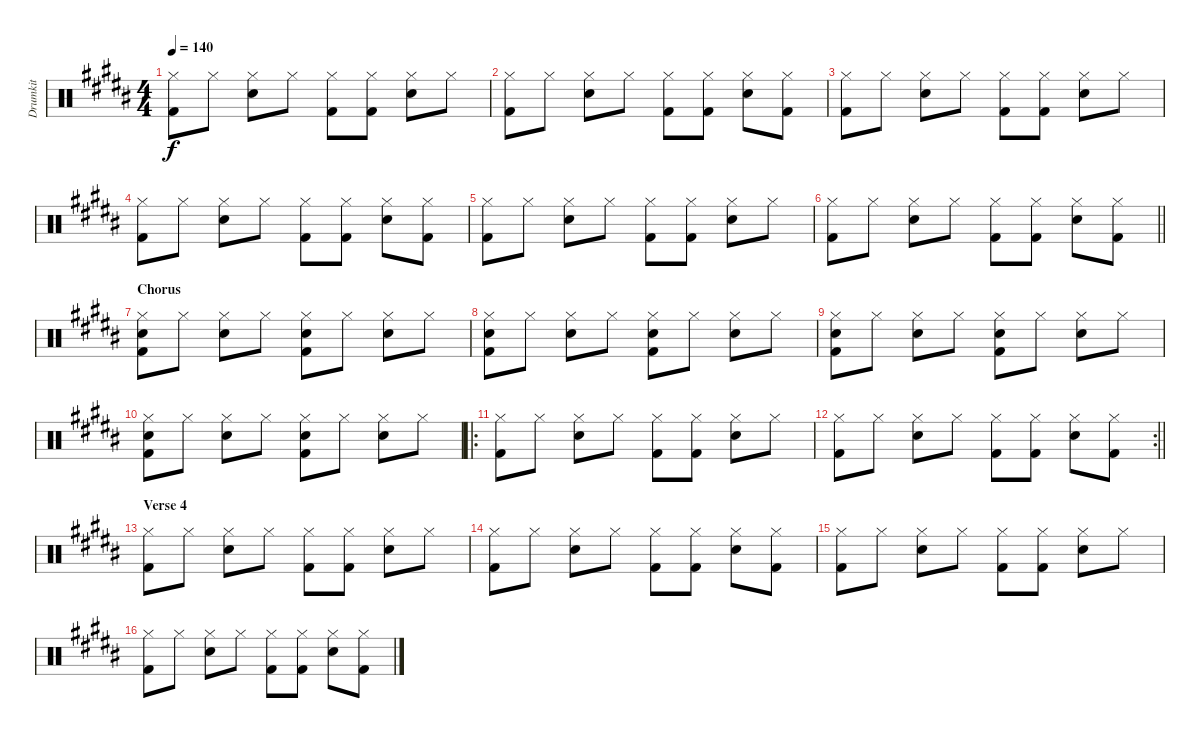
\track ("Drumkit" "Drumkit") {instrument percussion}
\staff {score}
\articulation defaults
\ts (4 4)
\tempo 140
\clef neutral
\ks b
("Hi-Hat (closed)" "Kick (hit) 2").8{dy f} "Hi-Hat (closed)".8 ("Hi-Hat (closed)" "Snare (hit) 2").8 "Hi-Hat (closed)".8 ("Hi-Hat (closed)" "Kick (hit) 2").8 ("Hi-Hat (closed)" "Kick (hit) 2").8 ("Hi-Hat (closed)" "Snare (hit) 2").8 "Hi-Hat (closed)".8 |
("Hi-Hat (closed)" "Kick (hit) 2").8 "Hi-Hat (closed)".8 ("Hi-Hat (closed)" "Snare (hit) 2").8 "Hi-Hat (closed)".8 ("Hi-Hat (closed)" "Kick (hit) 2").8 ("Hi-Hat (closed)" "Kick (hit) 2").8 ("Hi-Hat (closed)" "Snare (hit) 2").8 ("Hi-Hat (closed)" "Kick (hit) 2").8 |
("Hi-Hat (closed)" "Kick (hit) 2").8 "Hi-Hat (closed)".8 ("Hi-Hat (closed)" "Snare (hit) 2").8 "Hi-Hat (closed)".8 ("Hi-Hat (closed)" "Kick (hit) 2").8 ("Hi-Hat (closed)" "Kick (hit) 2").8 ("Hi-Hat (closed)" "Snare (hit) 2").8 "Hi-Hat (closed)".8 |
("Hi-Hat (closed)" "Kick (hit) 2").8 "Hi-Hat (closed)".8 ("Hi-Hat (closed)" "Snare (hit) 2").8 "Hi-Hat (closed)".8 ("Hi-Hat (closed)" "Kick (hit) 2").8 ("Hi-Hat (closed)" "Kick (hit) 2").8 ("Hi-Hat (closed)" "Snare (hit) 2").8 ("Hi-Hat (closed)" "Kick (hit) 2").8 |
("Hi-Hat (closed)" "Kick (hit) 2").8 "Hi-Hat (closed)".8 ("Hi-Hat (closed)" "Snare (hit) 2").8 "Hi-Hat (closed)".8 ("Hi-Hat (closed)" "Kick (hit) 2").8 ("Hi-Hat (closed)" "Kick (hit) 2").8 ("Hi-Hat (closed)" "Snare (hit) 2").8 "Hi-Hat (closed)".8 |
\barLineRight lightlight
("Hi-Hat (closed)" "Kick (hit) 2").8 "Hi-Hat (closed)".8 ("Hi-Hat (closed)" "Snare (hit) 2").8 "Hi-Hat (closed)".8 ("Hi-Hat (closed)" "Kick (hit) 2").8 ("Hi-Hat (closed)" "Kick (hit) 2").8 ("Hi-Hat (closed)" "Snare (hit) 2").8 ("Hi-Hat (closed)" "Kick (hit) 2").8 |
\section ("" "Chorus")
("Hi-Hat (closed)" "Snare (hit) 2" "Kick (hit) 2").8 "Hi-Hat (closed)".8 ("Hi-Hat (closed)" "Snare (hit) 2").8 "Hi-Hat (closed)".8 ("Hi-Hat (closed)" "Snare (hit) 2" "Kick (hit) 2").8 "Hi-Hat (closed)".8 ("Hi-Hat (closed)" "Snare (hit) 2").8 "Hi-Hat (closed)".8 |
("Hi-Hat (closed)" "Snare (hit) 2" "Kick (hit) 2").8 "Hi-Hat (closed)".8 ("Hi-Hat (closed)" "Snare (hit) 2").8 "Hi-Hat (closed)".8 ("Hi-Hat (closed)" "Snare (hit) 2" "Kick (hit) 2").8 "Hi-Hat (closed)".8 ("Hi-Hat (closed)" "Snare (hit) 2").8 "Hi-Hat (closed)".8 |
("Hi-Hat (closed)" "Snare (hit) 2" "Kick (hit) 2").8 "Hi-Hat (closed)".8 ("Hi-Hat (closed)" "Snare (hit) 2").8 "Hi-Hat (closed)".8 ("Hi-Hat (closed)" "Snare (hit) 2" "Kick (hit) 2").8 "Hi-Hat (closed)".8 ("Hi-Hat (closed)" "Snare (hit) 2").8 "Hi-Hat (closed)".8 |
("Hi-Hat (closed)" "Snare (hit) 2" "Kick (hit) 2").8 "Hi-Hat (closed)".8 ("Hi-Hat (closed)" "Snare (hit) 2").8 "Hi-Hat (closed)".8 ("Hi-Hat (closed)" "Snare (hit) 2" "Kick (hit) 2").8 "Hi-Hat (closed)".8 ("Hi-Hat (closed)" "Snare (hit) 2").8 "Hi-Hat (closed)".8 |
\ro
("Hi-Hat (closed)" "Kick (hit) 2").8 "Hi-Hat (closed)".8 ("Hi-Hat (closed)" "Snare (hit) 2").8 "Hi-Hat (closed)".8 ("Hi-Hat (closed)" "Kick (hit) 2").8 ("Hi-Hat (closed)" "Kick (hit) 2").8 ("Hi-Hat (closed)" "Snare (hit) 2").8 "Hi-Hat (closed)".8 |
\rc 2
\barLineRight lightlight
("Hi-Hat (closed)" "Kick (hit) 2").8 "Hi-Hat (closed)".8 ("Hi-Hat (closed)" "Snare (hit) 2").8 "Hi-Hat (closed)".8 ("Hi-Hat (closed)" "Kick (hit) 2").8 ("Hi-Hat (closed)" "Kick (hit) 2").8 ("Hi-Hat (closed)" "Snare (hit) 2").8 ("Hi-Hat (closed)" "Kick (hit) 2").8 |
\section ("" "Verse 4")
("Hi-Hat (closed)" "Kick (hit) 2").8 "Hi-Hat (closed)".8 ("Hi-Hat (closed)" "Snare (hit) 2").8 "Hi-Hat (closed)".8 ("Hi-Hat (closed)" "Kick (hit) 2").8 ("Hi-Hat (closed)" "Kick (hit) 2").8 ("Hi-Hat (closed)" "Snare (hit) 2").8 "Hi-Hat (closed)".8 |
("Hi-Hat (closed)" "Kick (hit) 2").8 "Hi-Hat (closed)".8 ("Hi-Hat (closed)" "Snare (hit) 2").8 "Hi-Hat (closed)".8 ("Hi-Hat (closed)" "Kick (hit) 2").8 ("Hi-Hat (closed)" "Kick (hit) 2").8 ("Hi-Hat (closed)" "Snare (hit) 2").8 ("Hi-Hat (closed)" "Kick (hit) 2").8 |
("Hi-Hat (closed)" "Kick (hit) 2").8 "Hi-Hat (closed)".8 ("Hi-Hat (closed)" "Snare (hit) 2").8 "Hi-Hat (closed)".8 ("Hi-Hat (closed)" "Kick (hit) 2").8 ("Hi-Hat (closed)" "Kick (hit) 2").8 ("Hi-Hat (closed)" "Snare (hit) 2").8 "Hi-Hat (closed)".8 |
("Hi-Hat (closed)" "Kick (hit) 2").8 "Hi-Hat (closed)".8 ("Hi-Hat (closed)" "Snare (hit) 2").8 "Hi-Hat (closed)".8 ("Hi-Hat (closed)" "Kick (hit) 2").8 ("Hi-Hat (closed)" "Kick (hit) 2").8 ("Hi-Hat (closed)" "Snare (hit) 2").8 ("Hi-Hat (closed)" "Kick (hit) 2").8
